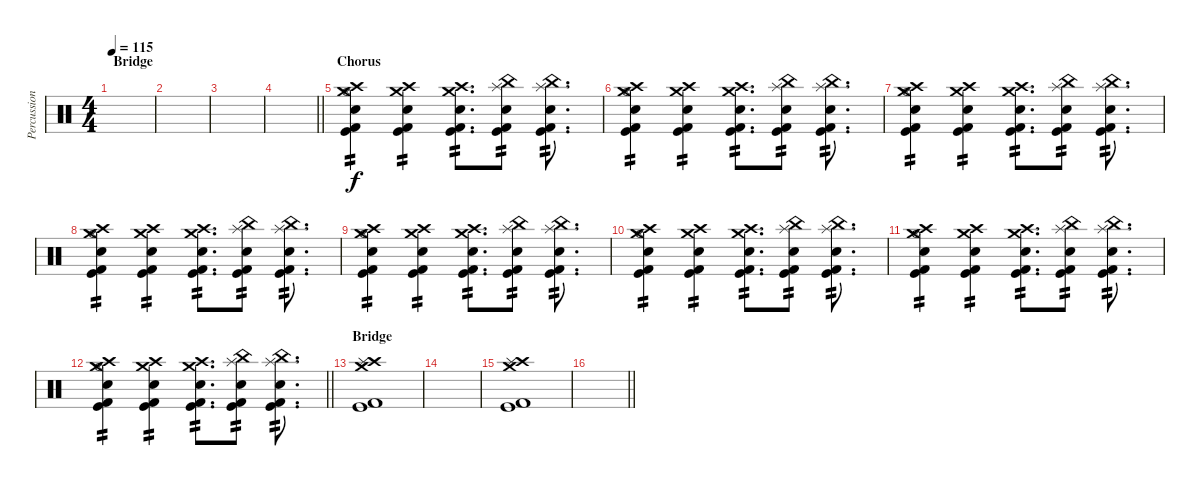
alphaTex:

\track ("Percussion (Approx.)" "Percussion") {instrument percussion}
\staff {score}
\articulation defaults
\ts (4 4)
\section ("" "Bridge")
\tempo 115
\clef neutral
\ks c
|
|
|
\barLineRight lightlight
|
\section ("" "Chorus")
("Hi-Hat (open)" "Crash medium (hit)" "Crash high (hit)" "Kick (hit) 2" "Kick (hit)" "Electric Snare (hit)").4{tp 2} ("Crash medium (hit)" "Crash high (hit)" "Kick (hit) 2" "Kick (hit)" "Electric Snare (hit)").4{tp 2} ("Crash medium (hit)" "Crash high (hit)" "Kick (hit) 2" "Kick (hit)" "Electric Snare (hit)").8{d tp 2} ("China (hit)" "Splash (hit)" "Kick (hit) 2" "Kick (hit)" "Electric Snare (hit)").8{tp 2} ("China (hit)" "Splash (hit)" "Kick (hit) 2" "Kick (hit)" "Electric Snare (hit)").8{d tp 2} |
("Hi-Hat (open)" "Crash medium (hit)" "Crash high (hit)" "Kick (hit) 2" "Kick (hit)" "Electric Snare (hit)").4{tp 2} ("Crash medium (hit)" "Crash high (hit)" "Kick (hit) 2" "Kick (hit)" "Electric Snare (hit)").4{tp 2} ("Crash medium (hit)" "Crash high (hit)" "Kick (hit) 2" "Kick (hit)" "Electric Snare (hit)").8{d tp 2} ("China (hit)" "Splash (hit)" "Kick (hit) 2" "Kick (hit)" "Electric Snare (hit)").8{tp 2} ("China (hit)" "Splash (hit)" "Kick (hit) 2" "Kick (hit)" "Electric Snare (hit)").8{d tp 2} |
("Hi-Hat (open)" "Crash medium (hit)" "Crash high (hit)" "Kick (hit) 2" "Kick (hit)" "Electric Snare (hit)").4{tp 2} ("Crash medium (hit)" "Crash high (hit)" "Kick (hit) 2" "Kick (hit)" "Electric Snare (hit)").4{tp 2} ("Crash medium (hit)" "Crash high (hit)" "Kick (hit) 2" "Kick (hit)" "Electric Snare (hit)").8{d tp 2} ("China (hit)" "Splash (hit)" "Kick (hit) 2" "Kick (hit)" "Electric Snare (hit)").8{tp 2} ("China (hit)" "Splash (hit)" "Kick (hit) 2" "Kick (hit)" "Electric Snare (hit)").8{d tp 2} |
("Hi-Hat (open)" "Crash medium (hit)" "Crash high (hit)" "Kick (hit) 2" "Kick (hit)" "Electric Snare (hit)").4{tp 2} ("Crash medium (hit)" "Crash high (hit)" "Kick (hit) 2" "Kick (hit)" "Electric Snare (hit)").4{tp 2} ("Crash medium (hit)" "Crash high (hit)" "Kick (hit) 2" "Kick (hit)" "Electric Snare (hit)").8{d tp 2} ("China (hit)" "Splash (hit)" "Kick (hit) 2" "Kick (hit)" "Electric Snare (hit)").8{tp 2} ("China (hit)" "Splash (hit)" "Kick (hit) 2" "Kick (hit)" "Electric Snare (hit)").8{d tp 2} |
("Hi-Hat (open)" "Crash medium (hit)" "Crash high (hit)" "Kick (hit) 2" "Kick (hit)" "Electric Snare (hit)").4{tp 2} ("Crash medium (hit)" "Crash high (hit)" "Kick (hit) 2" "Kick (hit)" "Electric Snare (hit)").4{tp 2} ("Crash medium (hit)" "Crash high (hit)" "Kick (hit) 2" "Kick (hit)" "Electric Snare (hit)").8{d tp 2} ("China (hit)" "Splash (hit)" "Kick (hit) 2" "Kick (hit)" "Electric Snare (hit)").8{tp 2} ("China (hit)" "Splash (hit)" "Kick (hit) 2" "Kick (hit)" "Electric Snare (hit)").8{d tp 2} |
("Hi-Hat (open)" "Crash medium (hit)" "Crash high (hit)" "Kick (hit) 2" "Kick (hit)" "Electric Snare (hit)").4{tp 2} ("Crash medium (hit)" "Crash high (hit)" "Kick (hit) 2" "Kick (hit)" "Electric Snare (hit)").4{tp 2} ("Crash medium (hit)" "Crash high (hit)" "Kick (hit) 2" "Kick (hit)" "Electric Snare (hit)").8{d tp 2} ("China (hit)" "Splash (hit)" "Kick (hit) 2" "Kick (hit)" "Electric Snare (hit)").8{tp 2} ("China (hit)" "Splash (hit)" "Kick (hit) 2" "Kick (hit)" "Electric Snare (hit)").8{d tp 2} |
("Hi-Hat (open)" "Crash medium (hit)" "Crash high (hit)" "Kick (hit) 2" "Kick (hit)" "Electric Snare (hit)").4{tp 2} ("Crash medium (hit)" "Crash high (hit)" "Kick (hit) 2" "Kick (hit)" "Electric Snare (hit)").4{tp 2} ("Crash medium (hit)" "Crash high (hit)" "Kick (hit) 2" "Kick (hit)" "Electric Snare (hit)").8{d tp 2} ("China (hit)" "Splash (hit)" "Kick (hit) 2" "Kick (hit)" "Electric Snare (hit)").8{tp 2} ("China (hit)" "Splash (hit)" "Kick (hit) 2" "Kick (hit)" "Electric Snare (hit)").8{d tp 2} |
\barLineRight lightlight
("Hi-Hat (open)" "Crash medium (hit)" "Crash high (hit)" "Kick (hit) 2" "Kick (hit)" "Electric Snare (hit)").4{tp 2} ("Crash medium (hit)" "Crash high (hit)" "Kick (hit) 2" "Kick (hit)" "Electric Snare (hit)").4{tp 2} ("Crash medium (hit)" "Crash high (hit)" "Kick (hit) 2" "Kick (hit)" "Electric Snare (hit)").8{d tp 2} ("China (hit)" "Splash (hit)" "Kick (hit) 2" "Kick (hit)" "Electric Snare (hit)").8{tp 2} ("China (hit)" "Splash (hit)" "Kick (hit) 2" "Kick (hit)" "Electric Snare (hit)").8{d tp 2} |
\section ("" "Bridge")
("Crash high (hit)" "Splash (hit)" "Crash medium (hit)" "Kick (hit) 2" "Kick (hit)").1 |
|
("Crash high (hit)" "Splash (hit)" "Crash medium (hit)" "Kick (hit) 2" "Kick (hit)").1 |
\barLineRight lightlight
